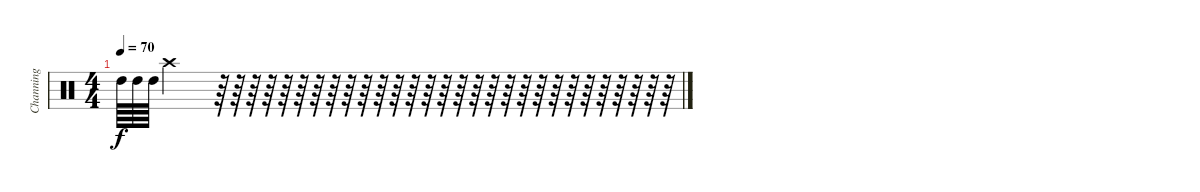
\track ("Channing" "Channing") {instrument percussion}
\staff {score}
\articulation defaults
\ts (4 4)
\tempo 70
\clef neutral
\ks c "High Tom (hit)".64{dy f} "High Tom (hit)".64 "High Tom (hit)".64 "Crash high (hit)".2
r.64 r.64 r.64 r.64 r.64 r.64 r.64 r.64 r.64 r.64 r.64 r.64 r.64 r.64 r.64 r.64 r.64 r.64 r.64 r.64 r.64 r.64 r.64 r.64 r.64 r.64 r.64 r.64 r.64
